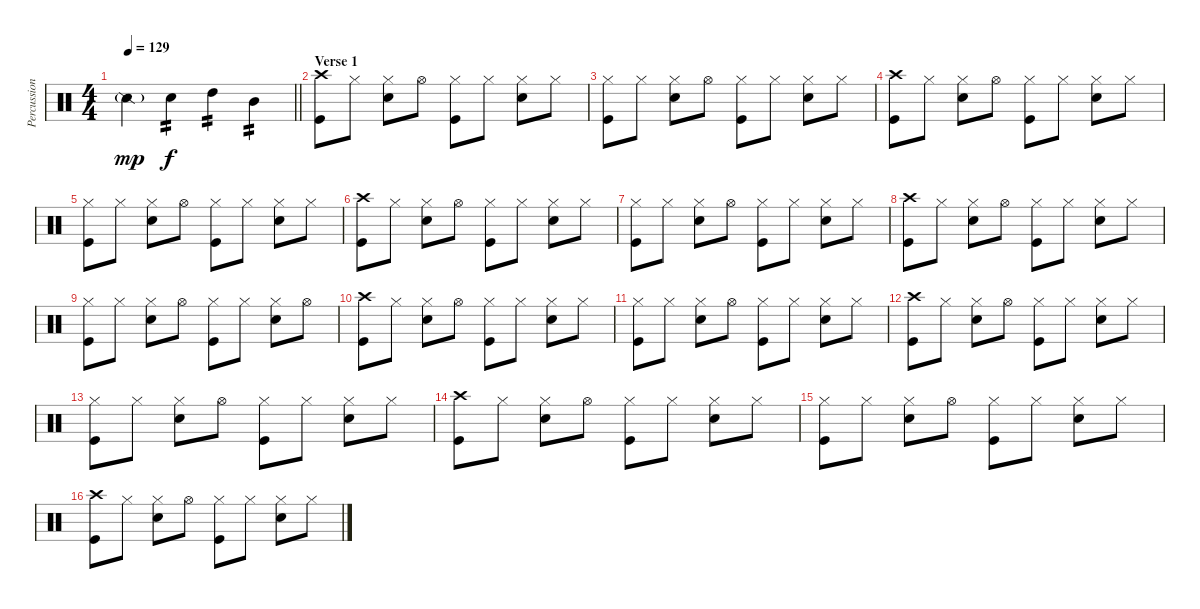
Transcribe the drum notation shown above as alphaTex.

\track ("Percussion" "Percussion") {instrument percussion}
\staff {score}
\articulation defaults
\ts (4 4)
\tempo 129
\clef neutral
\barLineRight lightlight
\ks c "Snare (side stick) 2"{g}.4{dy mp} "Snare (hit) 2".4{tp 2 dy f} "High Tom (hit)".4{tp 2} "Mid Tom (hit)".4{tp 2}
|
\section ("" "Verse 1")
("Crash high (hit)" "Kick (hit)").8 "Hi-Hat (closed)".8 ("Hi-Hat (closed)" "Snare (hit) 2").8 "Hi-Hat (open)".8 ("Hi-Hat (closed)" "Kick (hit)").8 "Hi-Hat (closed)".8 ("Hi-Hat (closed)" "Snare (hit) 2").8 "Hi-Hat (closed)".8 |
("Hi-Hat (closed)" "Kick (hit)").8 "Hi-Hat (closed)".8 ("Hi-Hat (closed)" "Snare (hit) 2").8 "Hi-Hat (open)".8 ("Hi-Hat (closed)" "Kick (hit)").8 "Hi-Hat (closed)".8 ("Hi-Hat (closed)" "Snare (hit) 2").8 "Hi-Hat (closed)".8 |
("Crash high (hit)" "Kick (hit)").8 "Hi-Hat (closed)".8 ("Hi-Hat (closed)" "Snare (hit) 2").8 "Hi-Hat (open)".8 ("Hi-Hat (closed)" "Kick (hit)").8 "Hi-Hat (closed)".8 ("Hi-Hat (closed)" "Snare (hit) 2").8 "Hi-Hat (closed)".8 |
("Hi-Hat (closed)" "Kick (hit)").8 "Hi-Hat (closed)".8 ("Hi-Hat (closed)" "Snare (hit) 2").8 "Hi-Hat (open)".8 ("Hi-Hat (closed)" "Kick (hit)").8 "Hi-Hat (closed)".8 ("Hi-Hat (closed)" "Snare (hit) 2").8 "Hi-Hat (closed)".8 |
("Crash high (hit)" "Kick (hit)").8 "Hi-Hat (closed)".8 ("Hi-Hat (closed)" "Snare (hit) 2").8 "Hi-Hat (open)".8 ("Hi-Hat (closed)" "Kick (hit)").8 "Hi-Hat (closed)".8 ("Hi-Hat (closed)" "Snare (hit) 2").8 "Hi-Hat (closed)".8 |
("Hi-Hat (closed)" "Kick (hit)").8 "Hi-Hat (closed)".8 ("Hi-Hat (closed)" "Snare (hit) 2").8 "Hi-Hat (open)".8 ("Hi-Hat (closed)" "Kick (hit)").8 "Hi-Hat (closed)".8 ("Hi-Hat (closed)" "Snare (hit) 2").8 "Hi-Hat (closed)".8 |
("Crash high (hit)" "Kick (hit)").8 "Hi-Hat (closed)".8 ("Hi-Hat (closed)" "Snare (hit) 2").8 "Hi-Hat (open)".8 ("Hi-Hat (closed)" "Kick (hit)").8 "Hi-Hat (closed)".8 ("Hi-Hat (closed)" "Snare (hit) 2").8 "Hi-Hat (closed)".8 |
("Hi-Hat (closed)" "Kick (hit)").8 "Hi-Hat (closed)".8 ("Hi-Hat (closed)" "Snare (hit) 2").8 "Hi-Hat (open)".8 ("Hi-Hat (closed)" "Kick (hit)").8 "Hi-Hat (closed)".8 ("Hi-Hat (closed)" "Snare (hit) 2").8 "Hi-Hat (open)".8 |
("Crash high (hit)" "Kick (hit)").8 "Hi-Hat (closed)".8 ("Hi-Hat (closed)" "Snare (hit) 2").8 "Hi-Hat (open)".8 ("Hi-Hat (closed)" "Kick (hit)").8 "Hi-Hat (closed)".8 ("Hi-Hat (closed)" "Snare (hit) 2").8 "Hi-Hat (closed)".8 |
("Hi-Hat (closed)" "Kick (hit)").8 "Hi-Hat (closed)".8 ("Hi-Hat (closed)" "Snare (hit) 2").8 "Hi-Hat (open)".8 ("Hi-Hat (closed)" "Kick (hit)").8 "Hi-Hat (closed)".8 ("Hi-Hat (closed)" "Snare (hit) 2").8 "Hi-Hat (closed)".8 |
("Crash high (hit)" "Kick (hit)").8 "Hi-Hat (closed)".8 ("Hi-Hat (closed)" "Snare (hit) 2").8 "Hi-Hat (open)".8 ("Hi-Hat (closed)" "Kick (hit)").8 "Hi-Hat (closed)".8 ("Hi-Hat (closed)" "Snare (hit) 2").8 "Hi-Hat (closed)".8 |
("Hi-Hat (closed)" "Kick (hit)").8 "Hi-Hat (closed)".8 ("Hi-Hat (closed)" "Snare (hit) 2").8 "Hi-Hat (open)".8 ("Hi-Hat (closed)" "Kick (hit)").8 "Hi-Hat (closed)".8 ("Hi-Hat (closed)" "Snare (hit) 2").8 "Hi-Hat (closed)".8 |
("Crash high (hit)" "Kick (hit)").8 "Hi-Hat (closed)".8 ("Hi-Hat (closed)" "Snare (hit) 2").8 "Hi-Hat (open)".8 ("Hi-Hat (closed)" "Kick (hit)").8 "Hi-Hat (closed)".8 ("Hi-Hat (closed)" "Snare (hit) 2").8 "Hi-Hat (closed)".8 |
("Hi-Hat (closed)" "Kick (hit)").8 "Hi-Hat (closed)".8 ("Hi-Hat (closed)" "Snare (hit) 2").8 "Hi-Hat (open)".8 ("Hi-Hat (closed)" "Kick (hit)").8 "Hi-Hat (closed)".8 ("Hi-Hat (closed)" "Snare (hit) 2").8 "Hi-Hat (closed)".8 |
("Crash high (hit)" "Kick (hit)").8 "Hi-Hat (closed)".8 ("Hi-Hat (closed)" "Snare (hit) 2").8 "Hi-Hat (open)".8 ("Hi-Hat (closed)" "Kick (hit)").8 "Hi-Hat (closed)".8 ("Hi-Hat (closed)" "Snare (hit) 2").8 "Hi-Hat (closed)".8
